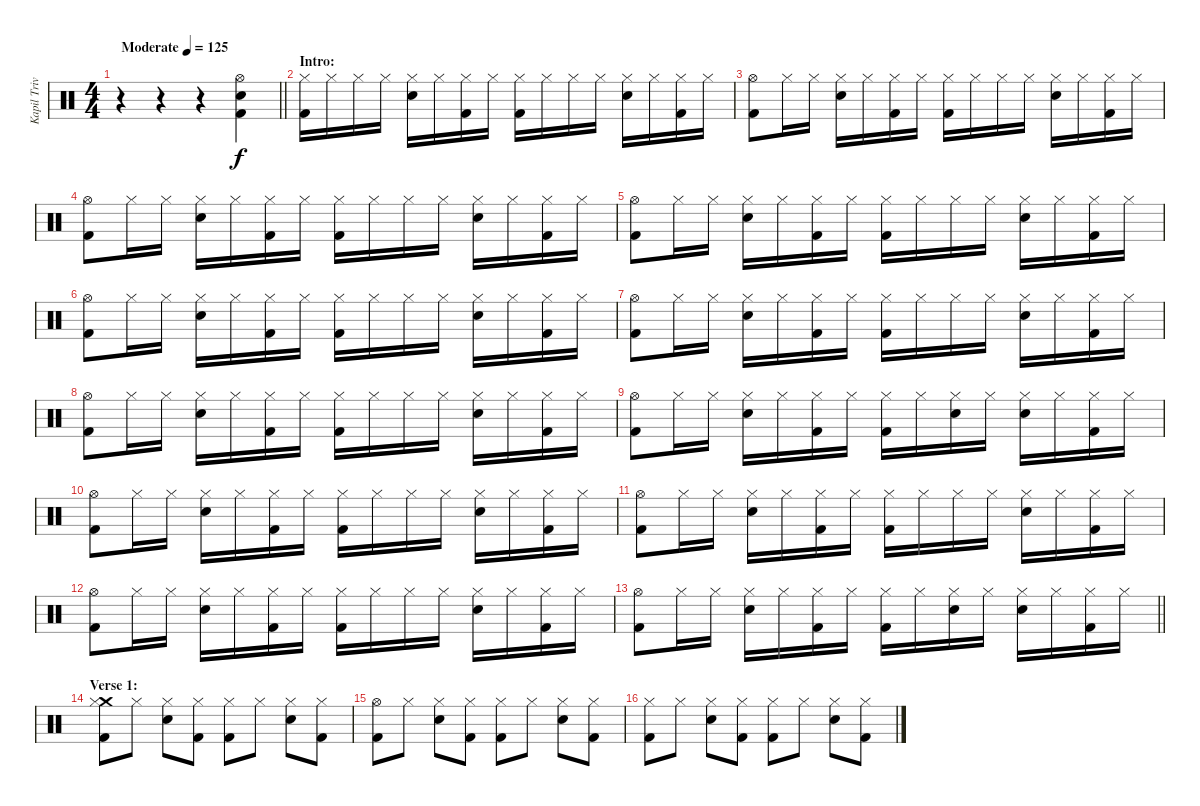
\track ("Kapil Trivedi (Percussion)" "Kapil Triv") {instrument percussion}
\staff {score}
\articulation defaults
\ts (4 4)
\tempo (125 "Moderate")
\clef neutral
\barLineRight lightlight
\ks c
r.4{dy f} r.4 r.4 ("Hi-Hat (open)" "Snare (hit) 2" "Kick (hit) 2").4 |
\section ("" "Intro:")
("Hi-Hat (closed)" "Kick (hit) 2").16 "Hi-Hat (closed)".16 "Hi-Hat (closed)".16 "Hi-Hat (closed)".16 ("Hi-Hat (closed)" "Snare (hit) 2").16 "Hi-Hat (closed)".16 ("Hi-Hat (closed)" "Kick (hit) 2").16 "Hi-Hat (closed)".16 ("Hi-Hat (closed)" "Kick (hit) 2").16 "Hi-Hat (closed)".16 "Hi-Hat (closed)".16 "Hi-Hat (closed)".16 ("Hi-Hat (closed)" "Snare (hit) 2").16 "Hi-Hat (closed)".16 ("Hi-Hat (closed)" "Kick (hit) 2").16 "Hi-Hat (closed)".16 |
("Hi-Hat (open)" "Kick (hit) 2").8 "Hi-Hat (closed)".16 "Hi-Hat (closed)".16 ("Hi-Hat (closed)" "Snare (hit) 2").16 "Hi-Hat (closed)".16 ("Hi-Hat (closed)" "Kick (hit) 2").16 "Hi-Hat (closed)".16 ("Hi-Hat (closed)" "Kick (hit) 2").16 "Hi-Hat (closed)".16 "Hi-Hat (closed)".16 "Hi-Hat (closed)".16 ("Hi-Hat (closed)" "Snare (hit) 2").16 "Hi-Hat (closed)".16 ("Hi-Hat (closed)" "Kick (hit) 2").16 "Hi-Hat (closed)".16 |
("Hi-Hat (open)" "Kick (hit) 2").8 "Hi-Hat (closed)".16 "Hi-Hat (closed)".16 ("Hi-Hat (closed)" "Snare (hit) 2").16 "Hi-Hat (closed)".16 ("Hi-Hat (closed)" "Kick (hit) 2").16 "Hi-Hat (closed)".16 ("Hi-Hat (closed)" "Kick (hit) 2").16 "Hi-Hat (closed)".16 "Hi-Hat (closed)".16 "Hi-Hat (closed)".16 ("Hi-Hat (closed)" "Snare (hit) 2").16 "Hi-Hat (closed)".16 ("Hi-Hat (closed)" "Kick (hit) 2").16 "Hi-Hat (closed)".16 |
("Hi-Hat (open)" "Kick (hit) 2").8 "Hi-Hat (closed)".16 "Hi-Hat (closed)".16 ("Hi-Hat (closed)" "Snare (hit) 2").16 "Hi-Hat (closed)".16 ("Hi-Hat (closed)" "Kick (hit) 2").16 "Hi-Hat (closed)".16 ("Hi-Hat (closed)" "Kick (hit) 2").16 "Hi-Hat (closed)".16 "Hi-Hat (closed)".16 "Hi-Hat (closed)".16 ("Hi-Hat (closed)" "Snare (hit) 2").16 "Hi-Hat (closed)".16 ("Hi-Hat (closed)" "Kick (hit) 2").16 "Hi-Hat (closed)".16 |
("Hi-Hat (open)" "Kick (hit) 2").8 "Hi-Hat (closed)".16 "Hi-Hat (closed)".16 ("Hi-Hat (closed)" "Snare (hit) 2").16 "Hi-Hat (closed)".16 ("Hi-Hat (closed)" "Kick (hit) 2").16 "Hi-Hat (closed)".16 ("Hi-Hat (closed)" "Kick (hit) 2").16 "Hi-Hat (closed)".16 "Hi-Hat (closed)".16 "Hi-Hat (closed)".16 ("Hi-Hat (closed)" "Snare (hit) 2").16 "Hi-Hat (closed)".16 ("Hi-Hat (closed)" "Kick (hit) 2").16 "Hi-Hat (closed)".16 |
("Hi-Hat (open)" "Kick (hit) 2").8 "Hi-Hat (closed)".16 "Hi-Hat (closed)".16 ("Hi-Hat (closed)" "Snare (hit) 2").16 "Hi-Hat (closed)".16 ("Hi-Hat (closed)" "Kick (hit) 2").16 "Hi-Hat (closed)".16 ("Hi-Hat (closed)" "Kick (hit) 2").16 "Hi-Hat (closed)".16 "Hi-Hat (closed)".16 "Hi-Hat (closed)".16 ("Hi-Hat (closed)" "Snare (hit) 2").16 "Hi-Hat (closed)".16 ("Hi-Hat (closed)" "Kick (hit) 2").16 "Hi-Hat (closed)".16 |
("Hi-Hat (open)" "Kick (hit) 2").8 "Hi-Hat (closed)".16 "Hi-Hat (closed)".16 ("Hi-Hat (closed)" "Snare (hit) 2").16 "Hi-Hat (closed)".16 ("Hi-Hat (closed)" "Kick (hit) 2").16 "Hi-Hat (closed)".16 ("Hi-Hat (closed)" "Kick (hit) 2").16 "Hi-Hat (closed)".16 "Hi-Hat (closed)".16 "Hi-Hat (closed)".16 ("Hi-Hat (closed)" "Snare (hit) 2").16 "Hi-Hat (closed)".16 ("Hi-Hat (closed)" "Kick (hit) 2").16 "Hi-Hat (closed)".16 |
("Hi-Hat (open)" "Kick (hit) 2").8 "Hi-Hat (closed)".16 "Hi-Hat (closed)".16 ("Hi-Hat (closed)" "Snare (hit) 2").16 "Hi-Hat (closed)".16 ("Hi-Hat (closed)" "Kick (hit) 2").16 "Hi-Hat (closed)".16 ("Hi-Hat (closed)" "Kick (hit) 2").16 "Hi-Hat (closed)".16 ("Hi-Hat (closed)" "Snare (hit) 2").16 "Hi-Hat (closed)".16 ("Hi-Hat (closed)" "Snare (hit) 2").16 "Hi-Hat (closed)".16 ("Hi-Hat (closed)" "Kick (hit) 2").16 "Hi-Hat (closed)".16 |
("Hi-Hat (open)" "Kick (hit) 2").8 "Hi-Hat (closed)".16 "Hi-Hat (closed)".16 ("Hi-Hat (closed)" "Snare (hit) 2").16 "Hi-Hat (closed)".16 ("Hi-Hat (closed)" "Kick (hit) 2").16 "Hi-Hat (closed)".16 ("Hi-Hat (closed)" "Kick (hit) 2").16 "Hi-Hat (closed)".16 "Hi-Hat (closed)".16 "Hi-Hat (closed)".16 ("Hi-Hat (closed)" "Snare (hit) 2").16 "Hi-Hat (closed)".16 ("Hi-Hat (closed)" "Kick (hit) 2").16 "Hi-Hat (closed)".16 |
("Hi-Hat (open)" "Kick (hit) 2").8 "Hi-Hat (closed)".16 "Hi-Hat (closed)".16 ("Hi-Hat (closed)" "Snare (hit) 2").16 "Hi-Hat (closed)".16 ("Hi-Hat (closed)" "Kick (hit) 2").16 "Hi-Hat (closed)".16 ("Hi-Hat (closed)" "Kick (hit) 2").16 "Hi-Hat (closed)".16 "Hi-Hat (closed)".16 "Hi-Hat (closed)".16 ("Hi-Hat (closed)" "Snare (hit) 2").16 "Hi-Hat (closed)".16 ("Hi-Hat (closed)" "Kick (hit) 2").16 "Hi-Hat (closed)".16 |
("Hi-Hat (open)" "Kick (hit) 2").8 "Hi-Hat (closed)".16 "Hi-Hat (closed)".16 ("Hi-Hat (closed)" "Snare (hit) 2").16 "Hi-Hat (closed)".16 ("Hi-Hat (closed)" "Kick (hit) 2").16 "Hi-Hat (closed)".16 ("Hi-Hat (closed)" "Kick (hit) 2").16 "Hi-Hat (closed)".16 "Hi-Hat (closed)".16 "Hi-Hat (closed)".16 ("Hi-Hat (closed)" "Snare (hit) 2").16 "Hi-Hat (closed)".16 ("Hi-Hat (closed)" "Kick (hit) 2").16 "Hi-Hat (closed)".16 |
\barLineRight lightlight
("Hi-Hat (open)" "Kick (hit) 2").8 "Hi-Hat (closed)".16 "Hi-Hat (closed)".16 ("Hi-Hat (closed)" "Snare (hit) 2").16 "Hi-Hat (closed)".16 ("Hi-Hat (closed)" "Kick (hit) 2").16 "Hi-Hat (closed)".16 ("Hi-Hat (closed)" "Kick (hit) 2").16 "Hi-Hat (closed)".16 ("Hi-Hat (closed)" "Snare (hit) 2").16 "Hi-Hat (closed)".16 ("Hi-Hat (closed)" "Snare (hit) 2").16 "Hi-Hat (closed)".16 ("Hi-Hat (closed)" "Kick (hit) 2").16 "Hi-Hat (closed)".16 |
\section ("" "Verse 1:")
("Crash medium (hit)" "Hi-Hat (closed)" "Kick (hit) 2").8 "Hi-Hat (closed)".8 ("Hi-Hat (closed)" "Snare (hit) 2").8 ("Hi-Hat (closed)" "Kick (hit) 2").8 ("Hi-Hat (closed)" "Kick (hit) 2").8 "Hi-Hat (closed)".8 ("Hi-Hat (closed)" "Snare (hit) 2").8 ("Hi-Hat (closed)" "Kick (hit) 2").8 |
("Hi-Hat (open)" "Kick (hit) 2").8 "Hi-Hat (closed)".8 ("Hi-Hat (closed)" "Snare (hit) 2").8 ("Hi-Hat (closed)" "Kick (hit) 2").8 ("Hi-Hat (closed)" "Kick (hit) 2").8 "Hi-Hat (closed)".8 ("Hi-Hat (closed)" "Snare (hit) 2").8 ("Hi-Hat (closed)" "Kick (hit) 2").8 |
("Hi-Hat (closed)" "Kick (hit) 2").8 "Hi-Hat (closed)".8 ("Hi-Hat (closed)" "Snare (hit) 2").8 ("Hi-Hat (closed)" "Kick (hit) 2").8 ("Hi-Hat (closed)" "Kick (hit) 2").8 "Hi-Hat (closed)".8 ("Hi-Hat (closed)" "Snare (hit) 2").8 ("Hi-Hat (closed)" "Kick (hit) 2").8
